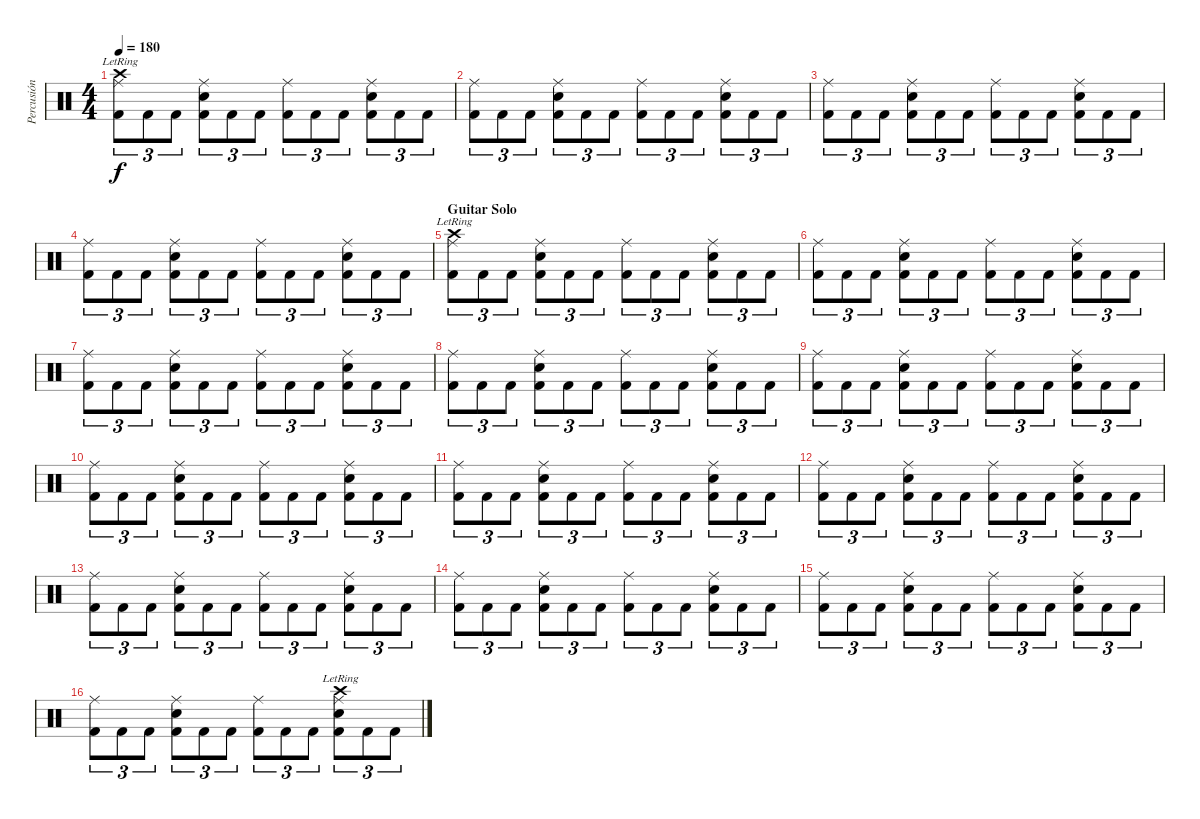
\track ("Percusión" "Percusión") {instrument percussion}
\staff {score}
\articulation defaults
\ts (4 4)
\tempo 180
\clef neutral
\ks c
("Crash high (hit)"{lr} "Ride (middle)" "Kick (hit) 2").8{tu (3 2) dy f} "Kick (hit) 2".8{tu (3 2)} "Kick (hit) 2".8{tu (3 2)} ("Ride (middle)" "Snare (hit) 2" "Kick (hit) 2").8{tu (3 2)} "Kick (hit) 2".8{tu (3 2)} "Kick (hit) 2".8{tu (3 2)} ("Ride (middle)" "Kick (hit) 2").8{tu (3 2)} "Kick (hit) 2".8{tu (3 2)} "Kick (hit) 2".8{tu (3 2)} ("Ride (middle)" "Snare (hit) 2" "Kick (hit) 2").8{tu (3 2)} "Kick (hit) 2".8{tu (3 2)} "Kick (hit) 2".8{tu (3 2)} |
("Ride (middle)" "Kick (hit) 2").8{tu (3 2)} "Kick (hit) 2".8{tu (3 2)} "Kick (hit) 2".8{tu (3 2)} ("Ride (middle)" "Snare (hit) 2" "Kick (hit) 2").8{tu (3 2)} "Kick (hit) 2".8{tu (3 2)} "Kick (hit) 2".8{tu (3 2)} ("Ride (middle)" "Kick (hit) 2").8{tu (3 2)} "Kick (hit) 2".8{tu (3 2)} "Kick (hit) 2".8{tu (3 2)} ("Ride (middle)" "Snare (hit) 2" "Kick (hit) 2").8{tu (3 2)} "Kick (hit) 2".8{tu (3 2)} "Kick (hit) 2".8{tu (3 2)} |
("Ride (middle)" "Kick (hit) 2").8{tu (3 2)} "Kick (hit) 2".8{tu (3 2)} "Kick (hit) 2".8{tu (3 2)} ("Ride (middle)" "Snare (hit) 2" "Kick (hit) 2").8{tu (3 2)} "Kick (hit) 2".8{tu (3 2)} "Kick (hit) 2".8{tu (3 2)} ("Ride (middle)" "Kick (hit) 2").8{tu (3 2)} "Kick (hit) 2".8{tu (3 2)} "Kick (hit) 2".8{tu (3 2)} ("Ride (middle)" "Snare (hit) 2" "Kick (hit) 2").8{tu (3 2)} "Kick (hit) 2".8{tu (3 2)} "Kick (hit) 2".8{tu (3 2)} |
("Ride (middle)" "Kick (hit) 2").8{tu (3 2)} "Kick (hit) 2".8{tu (3 2)} "Kick (hit) 2".8{tu (3 2)} ("Ride (middle)" "Snare (hit) 2" "Kick (hit) 2").8{tu (3 2)} "Kick (hit) 2".8{tu (3 2)} "Kick (hit) 2".8{tu (3 2)} ("Ride (middle)" "Kick (hit) 2").8{tu (3 2)} "Kick (hit) 2".8{tu (3 2)} "Kick (hit) 2".8{tu (3 2)} ("Ride (middle)" "Snare (hit) 2" "Kick (hit) 2").8{tu (3 2)} "Kick (hit) 2".8{tu (3 2)} "Kick (hit) 2".8{tu (3 2)} |
\section ("" "Guitar Solo")
("Crash high (hit)"{lr} "Ride (middle)" "Kick (hit) 2").8{tu (3 2)} "Kick (hit) 2".8{tu (3 2)} "Kick (hit) 2".8{tu (3 2)} ("Ride (middle)" "Snare (hit) 2" "Kick (hit) 2").8{tu (3 2)} "Kick (hit) 2".8{tu (3 2)} "Kick (hit) 2".8{tu (3 2)} ("Ride (middle)" "Kick (hit) 2").8{tu (3 2)} "Kick (hit) 2".8{tu (3 2)} "Kick (hit) 2".8{tu (3 2)} ("Ride (middle)" "Snare (hit) 2" "Kick (hit) 2").8{tu (3 2)} "Kick (hit) 2".8{tu (3 2)} "Kick (hit) 2".8{tu (3 2)} |
("Ride (middle)" "Kick (hit) 2").8{tu (3 2)} "Kick (hit) 2".8{tu (3 2)} "Kick (hit) 2".8{tu (3 2)} ("Ride (middle)" "Snare (hit) 2" "Kick (hit) 2").8{tu (3 2)} "Kick (hit) 2".8{tu (3 2)} "Kick (hit) 2".8{tu (3 2)} ("Ride (middle)" "Kick (hit) 2").8{tu (3 2)} "Kick (hit) 2".8{tu (3 2)} "Kick (hit) 2".8{tu (3 2)} ("Ride (middle)" "Snare (hit) 2" "Kick (hit) 2").8{tu (3 2)} "Kick (hit) 2".8{tu (3 2)} "Kick (hit) 2".8{tu (3 2)} |
("Ride (middle)" "Kick (hit) 2").8{tu (3 2)} "Kick (hit) 2".8{tu (3 2)} "Kick (hit) 2".8{tu (3 2)} ("Ride (middle)" "Snare (hit) 2" "Kick (hit) 2").8{tu (3 2)} "Kick (hit) 2".8{tu (3 2)} "Kick (hit) 2".8{tu (3 2)} ("Ride (middle)" "Kick (hit) 2").8{tu (3 2)} "Kick (hit) 2".8{tu (3 2)} "Kick (hit) 2".8{tu (3 2)} ("Ride (middle)" "Snare (hit) 2" "Kick (hit) 2").8{tu (3 2)} "Kick (hit) 2".8{tu (3 2)} "Kick (hit) 2".8{tu (3 2)} |
("Ride (middle)" "Kick (hit) 2").8{tu (3 2)} "Kick (hit) 2".8{tu (3 2)} "Kick (hit) 2".8{tu (3 2)} ("Ride (middle)" "Snare (hit) 2" "Kick (hit) 2").8{tu (3 2)} "Kick (hit) 2".8{tu (3 2)} "Kick (hit) 2".8{tu (3 2)} ("Ride (middle)" "Kick (hit) 2").8{tu (3 2)} "Kick (hit) 2".8{tu (3 2)} "Kick (hit) 2".8{tu (3 2)} ("Ride (middle)" "Snare (hit) 2" "Kick (hit) 2").8{tu (3 2)} "Kick (hit) 2".8{tu (3 2)} "Kick (hit) 2".8{tu (3 2)} |
("Ride (middle)" "Kick (hit) 2").8{tu (3 2)} "Kick (hit) 2".8{tu (3 2)} "Kick (hit) 2".8{tu (3 2)} ("Ride (middle)" "Snare (hit) 2" "Kick (hit) 2").8{tu (3 2)} "Kick (hit) 2".8{tu (3 2)} "Kick (hit) 2".8{tu (3 2)} ("Ride (middle)" "Kick (hit) 2").8{tu (3 2)} "Kick (hit) 2".8{tu (3 2)} "Kick (hit) 2".8{tu (3 2)} ("Ride (middle)" "Snare (hit) 2" "Kick (hit) 2").8{tu (3 2)} "Kick (hit) 2".8{tu (3 2)} "Kick (hit) 2".8{tu (3 2)} |
("Ride (middle)" "Kick (hit) 2").8{tu (3 2)} "Kick (hit) 2".8{tu (3 2)} "Kick (hit) 2".8{tu (3 2)} ("Ride (middle)" "Snare (hit) 2" "Kick (hit) 2").8{tu (3 2)} "Kick (hit) 2".8{tu (3 2)} "Kick (hit) 2".8{tu (3 2)} ("Ride (middle)" "Kick (hit) 2").8{tu (3 2)} "Kick (hit) 2".8{tu (3 2)} "Kick (hit) 2".8{tu (3 2)} ("Ride (middle)" "Snare (hit) 2" "Kick (hit) 2").8{tu (3 2)} "Kick (hit) 2".8{tu (3 2)} "Kick (hit) 2".8{tu (3 2)} |
("Ride (middle)" "Kick (hit) 2").8{tu (3 2)} "Kick (hit) 2".8{tu (3 2)} "Kick (hit) 2".8{tu (3 2)} ("Ride (middle)" "Snare (hit) 2" "Kick (hit) 2").8{tu (3 2)} "Kick (hit) 2".8{tu (3 2)} "Kick (hit) 2".8{tu (3 2)} ("Ride (middle)" "Kick (hit) 2").8{tu (3 2)} "Kick (hit) 2".8{tu (3 2)} "Kick (hit) 2".8{tu (3 2)} ("Ride (middle)" "Snare (hit) 2" "Kick (hit) 2").8{tu (3 2)} "Kick (hit) 2".8{tu (3 2)} "Kick (hit) 2".8{tu (3 2)} |
("Ride (middle)" "Kick (hit) 2").8{tu (3 2)} "Kick (hit) 2".8{tu (3 2)} "Kick (hit) 2".8{tu (3 2)} ("Ride (middle)" "Snare (hit) 2" "Kick (hit) 2").8{tu (3 2)} "Kick (hit) 2".8{tu (3 2)} "Kick (hit) 2".8{tu (3 2)} ("Ride (middle)" "Kick (hit) 2").8{tu (3 2)} "Kick (hit) 2".8{tu (3 2)} "Kick (hit) 2".8{tu (3 2)} ("Ride (middle)" "Snare (hit) 2" "Kick (hit) 2").8{tu (3 2)} "Kick (hit) 2".8{tu (3 2)} "Kick (hit) 2".8{tu (3 2)} |
("Ride (middle)" "Kick (hit) 2").8{tu (3 2)} "Kick (hit) 2".8{tu (3 2)} "Kick (hit) 2".8{tu (3 2)} ("Ride (middle)" "Snare (hit) 2" "Kick (hit) 2").8{tu (3 2)} "Kick (hit) 2".8{tu (3 2)} "Kick (hit) 2".8{tu (3 2)} ("Ride (middle)" "Kick (hit) 2").8{tu (3 2)} "Kick (hit) 2".8{tu (3 2)} "Kick (hit) 2".8{tu (3 2)} ("Ride (middle)" "Snare (hit) 2" "Kick (hit) 2").8{tu (3 2)} "Kick (hit) 2".8{tu (3 2)} "Kick (hit) 2".8{tu (3 2)} |
("Ride (middle)" "Kick (hit) 2").8{tu (3 2)} "Kick (hit) 2".8{tu (3 2)} "Kick (hit) 2".8{tu (3 2)} ("Ride (middle)" "Snare (hit) 2" "Kick (hit) 2").8{tu (3 2)} "Kick (hit) 2".8{tu (3 2)} "Kick (hit) 2".8{tu (3 2)} ("Ride (middle)" "Kick (hit) 2").8{tu (3 2)} "Kick (hit) 2".8{tu (3 2)} "Kick (hit) 2".8{tu (3 2)} ("Ride (middle)" "Snare (hit) 2" "Kick (hit) 2").8{tu (3 2)} "Kick (hit) 2".8{tu (3 2)} "Kick (hit) 2".8{tu (3 2)} |
("Ride (middle)" "Kick (hit) 2").8{tu (3 2)} "Kick (hit) 2".8{tu (3 2)} "Kick (hit) 2".8{tu (3 2)} ("Ride (middle)" "Snare (hit) 2" "Kick (hit) 2").8{tu (3 2)} "Kick (hit) 2".8{tu (3 2)} "Kick (hit) 2".8{tu (3 2)} ("Ride (middle)" "Kick (hit) 2").8{tu (3 2)} "Kick (hit) 2".8{tu (3 2)} "Kick (hit) 2".8{tu (3 2)} ("Ride (middle)" "Snare (hit) 2" "Kick (hit) 2").8{tu (3 2)} "Kick (hit) 2".8{tu (3 2)} "Kick (hit) 2".8{tu (3 2)} |
("Ride (middle)" "Kick (hit) 2").8{tu (3 2)} "Kick (hit) 2".8{tu (3 2)} "Kick (hit) 2".8{tu (3 2)} ("Ride (middle)" "Snare (hit) 2" "Kick (hit) 2").8{tu (3 2)} "Kick (hit) 2".8{tu (3 2)} "Kick (hit) 2".8{tu (3 2)} ("Ride (middle)" "Kick (hit) 2").8{tu (3 2)} "Kick (hit) 2".8{tu (3 2)} "Kick (hit) 2".8{tu (3 2)} ("Crash high (hit)"{lr} "Ride (middle)" "Snare (hit) 2" "Kick (hit) 2").8{tu (3 2)} "Kick (hit) 2".8{tu (3 2)} "Kick (hit) 2".8{tu (3 2)}
